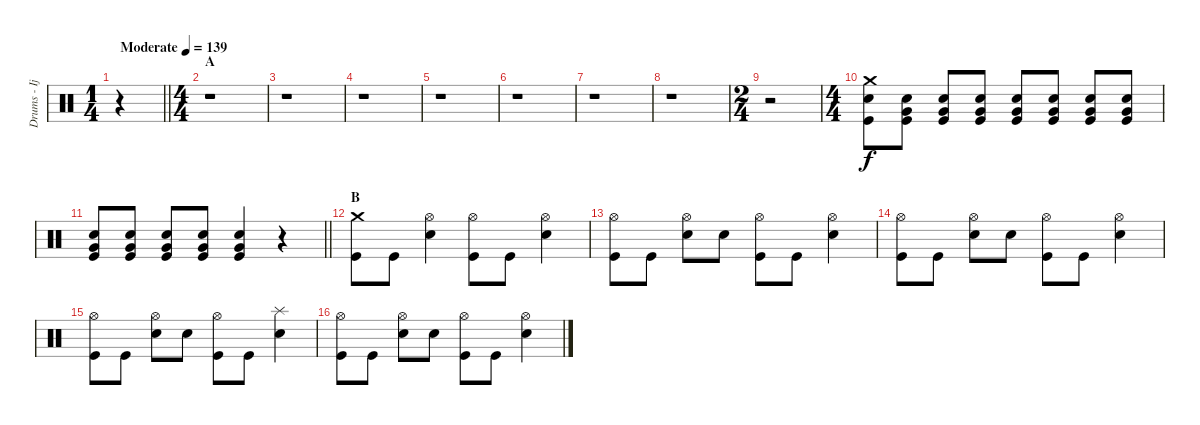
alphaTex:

\track ("Drums - Ijichi" "Drums - Ij") {instrument percussion}
\staff {score}
\articulation defaults
\ts (1 4)
\tempo (139 "Moderate")
\clef neutral
\barLineRight lightlight
\ks c
r.4{dy f} |
\ts (4 4)
\section ("" "A")
r.1 |
r.1 |
r.1 |
r.1 |
r.1 |
r.1 |
r.1 |
\ts (2 4)
r.2 |
\ts (4 4)
("Crash medium (hit)" "Electric Snare (hit)" "Kick (hit)").8 ("Electric Snare (hit)" "Very Low Tom (hit)" "Kick (hit)").8 ("Electric Snare (hit)" "Very Low Tom (hit)" "Kick (hit)").8 ("Electric Snare (hit)" "Very Low Tom (hit)" "Kick (hit)").8 ("Electric Snare (hit)" "Very Low Tom (hit)" "Kick (hit)").8 ("Electric Snare (hit)" "Very Low Tom (hit)" "Kick (hit)").8 ("Electric Snare (hit)" "Very Low Tom (hit)" "Kick (hit)").8 ("Electric Snare (hit)" "Very Low Tom (hit)" "Kick (hit)").8 |
\barLineRight lightlight
("Electric Snare (hit)" "Very Low Tom (hit)" "Kick (hit)").8 ("Electric Snare (hit)" "Very Low Tom (hit)" "Kick (hit)").8 ("Electric Snare (hit)" "Very Low Tom (hit)" "Kick (hit)").8 ("Electric Snare (hit)" "Very Low Tom (hit)" "Kick (hit)").8 ("Electric Snare (hit)" "Very Low Tom (hit)" "Kick (hit)").4 r.4 |
\section ("" "B")
("Crash medium (hit)" "Kick (hit)").8 "Kick (hit)".8 ("Hi-Hat (open)" "Electric Snare (hit)").4 ("Hi-Hat (open)" "Kick (hit)").8 "Kick (hit)".8 ("Hi-Hat (open)" "Electric Snare (hit)").4 |
("Hi-Hat (open)" "Kick (hit)").8 "Kick (hit)".8 ("Hi-Hat (open)" "Electric Snare (hit)").8 "Electric Snare (hit)".8 ("Hi-Hat (open)" "Kick (hit)").8 "Kick (hit)".8 ("Hi-Hat (open)" "Electric Snare (hit)").4 |
("Hi-Hat (open)" "Kick (hit)").8 "Kick (hit)".8 ("Hi-Hat (open)" "Electric Snare (hit)").8 "Electric Snare (hit)".8 ("Hi-Hat (open)" "Kick (hit)").8 "Kick (hit)".8 ("Hi-Hat (open)" "Electric Snare (hit)").4 |
("Hi-Hat (open)" "Kick (hit)").8 "Kick (hit)".8 ("Hi-Hat (open)" "Electric Snare (hit)").8 "Electric Snare (hit)".8 ("Hi-Hat (open)" "Kick (hit)").8 "Kick (hit)".8 ("Splash (hit)" "Electric Snare (hit)").4 |
("Hi-Hat (open)" "Kick (hit)").8 "Kick (hit)".8 ("Hi-Hat (open)" "Electric Snare (hit)").8 "Electric Snare (hit)".8 ("Hi-Hat (open)" "Kick (hit)").8 "Kick (hit)".8 ("Hi-Hat (open)" "Electric Snare (hit)").4
